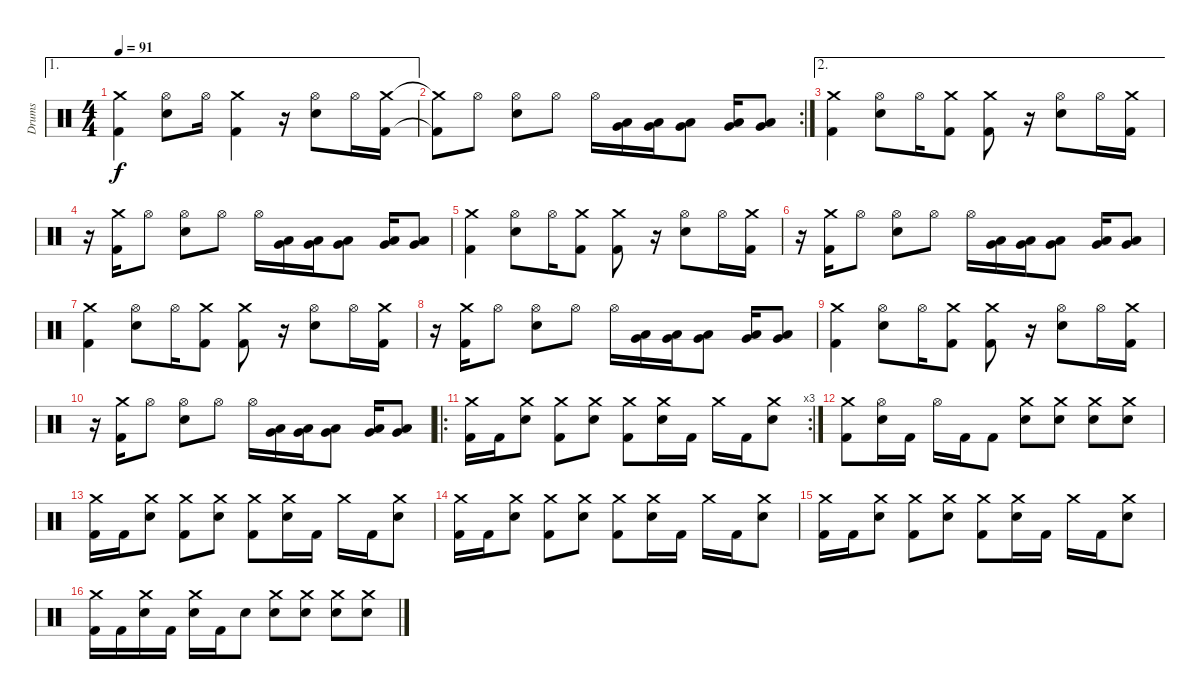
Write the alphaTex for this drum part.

\track ("Drums" "Drums") {instrument percussion}
\staff {score}
\articulation defaults
\ae 1
\ts (4 4)
\tempo 91
\clef neutral
\ks c
("Crash medium (hit)" "Kick (hit) 2").4{dy f} ("Hi-Hat (open)" "Snare (hit) 2").8 "Hi-Hat (open)".16 ("Crash medium (hit)" "Kick (hit) 2").4 r.16 ("Hi-Hat (open)" "Snare (hit) 2").8 "Hi-Hat (open)".16 ("Crash medium (hit)" "Kick (hit) 2").16 |
\rc 2
("Crash medium (hit)"{t} "Kick (hit) 2"{t}).8 "Hi-Hat (open)".8 ("Hi-Hat (open)" "Snare (hit) 2").8 "Hi-Hat (open)".8 "Hi-Hat (open)".16 ("Low Tom (hit)" "Very Low Tom (hit)").16 ("Low Tom (hit)" "Very Low Tom (hit)").16 ("Low Tom (hit)" "Very Low Tom (hit)").8 ("Low Tom (hit)" "Very Low Tom (hit)").16 ("Low Tom (hit)" "Very Low Tom (hit)").8 |
\ae 2
("Crash medium (hit)" "Kick (hit) 2").4 ("Hi-Hat (open)" "Snare (hit) 2").8 "Hi-Hat (open)".16 ("Crash medium (hit)" "Kick (hit) 2").8 ("Crash medium (hit)" "Kick (hit) 2").8 r.16 ("Hi-Hat (open)" "Snare (hit) 2").8 "Hi-Hat (open)".16 ("Crash medium (hit)" "Kick (hit) 2").16 |
r.16 ("Crash medium (hit)" "Kick (hit) 2").16 "Hi-Hat (open)".8 ("Hi-Hat (open)" "Snare (hit) 2").8 "Hi-Hat (open)".8 "Hi-Hat (open)".16 ("Low Tom (hit)" "Very Low Tom (hit)").16 ("Low Tom (hit)" "Very Low Tom (hit)").16 ("Low Tom (hit)" "Very Low Tom (hit)").8 ("Low Tom (hit)" "Very Low Tom (hit)").16 ("Low Tom (hit)" "Very Low Tom (hit)").8 |
("Crash medium (hit)" "Kick (hit) 2").4 ("Hi-Hat (open)" "Snare (hit) 2").8 "Hi-Hat (open)".16 ("Crash medium (hit)" "Kick (hit) 2").8 ("Crash medium (hit)" "Kick (hit) 2").8 r.16 ("Hi-Hat (open)" "Snare (hit) 2").8 "Hi-Hat (open)".16 ("Crash medium (hit)" "Kick (hit) 2").16 |
r.16 ("Crash medium (hit)" "Kick (hit) 2").16 "Hi-Hat (open)".8 ("Hi-Hat (open)" "Snare (hit) 2").8 "Hi-Hat (open)".8 "Hi-Hat (open)".16 ("Low Tom (hit)" "Very Low Tom (hit)").16 ("Low Tom (hit)" "Very Low Tom (hit)").16 ("Low Tom (hit)" "Very Low Tom (hit)").8 ("Low Tom (hit)" "Very Low Tom (hit)").16 ("Low Tom (hit)" "Very Low Tom (hit)").8 |
("Crash medium (hit)" "Kick (hit) 2").4 ("Hi-Hat (open)" "Snare (hit) 2").8 "Hi-Hat (open)".16 ("Crash medium (hit)" "Kick (hit) 2").8 ("Crash medium (hit)" "Kick (hit) 2").8 r.16 ("Hi-Hat (open)" "Snare (hit) 2").8 "Hi-Hat (open)".16 ("Crash medium (hit)" "Kick (hit) 2").16 |
r.16 ("Crash medium (hit)" "Kick (hit) 2").16 "Hi-Hat (open)".8 ("Hi-Hat (open)" "Snare (hit) 2").8 "Hi-Hat (open)".8 "Hi-Hat (open)".16 ("Low Tom (hit)" "Very Low Tom (hit)").16 ("Low Tom (hit)" "Very Low Tom (hit)").16 ("Low Tom (hit)" "Very Low Tom (hit)").8 ("Low Tom (hit)" "Very Low Tom (hit)").16 ("Low Tom (hit)" "Very Low Tom (hit)").8 |
("Crash medium (hit)" "Kick (hit) 2").4 ("Hi-Hat (open)" "Snare (hit) 2").8 "Hi-Hat (open)".16 ("Crash medium (hit)" "Kick (hit) 2").8 ("Crash medium (hit)" "Kick (hit) 2").8 r.16 ("Hi-Hat (open)" "Snare (hit) 2").8 "Hi-Hat (open)".16 ("Crash medium (hit)" "Kick (hit) 2").16 |
r.16 ("Crash medium (hit)" "Kick (hit) 2").16 "Hi-Hat (open)".8 ("Hi-Hat (open)" "Snare (hit) 2").8 "Hi-Hat (open)".8 "Hi-Hat (open)".16 ("Low Tom (hit)" "Very Low Tom (hit)").16 ("Low Tom (hit)" "Very Low Tom (hit)").16 ("Low Tom (hit)" "Very Low Tom (hit)").8 ("Low Tom (hit)" "Very Low Tom (hit)").16 ("Low Tom (hit)" "Very Low Tom (hit)").8 |
\ro
\rc 3
("Crash medium (hit)" "Kick (hit) 2").16 "Kick (hit) 2".16 ("Crash medium (hit)" "Snare (hit) 2").8 ("Crash medium (hit)" "Kick (hit) 2").8 ("Crash medium (hit)" "Snare (hit) 2").8 ("Crash medium (hit)" "Kick (hit) 2").8 ("Crash medium (hit)" "Snare (hit) 2").16 "Kick (hit) 2".16 "Crash medium (hit)".16 "Kick (hit) 2".16 ("Crash medium (hit)" "Snare (hit) 2").8 |
("Crash medium (hit)" "Kick (hit) 2").8 ("Hi-Hat (open)" "Snare (hit) 2").16 "Kick (hit) 2".16 "Hi-Hat (open)".16 "Kick (hit) 2".16 "Kick (hit) 2".8 ("Crash medium (hit)" "Snare (hit) 2").8 ("Crash medium (hit)" "Snare (hit) 2").8 ("Crash medium (hit)" "Snare (hit) 2").8 ("Crash medium (hit)" "Snare (hit) 2").8 |
("Crash medium (hit)" "Kick (hit) 2").16 "Kick (hit) 2".16 ("Crash medium (hit)" "Snare (hit) 2").8 ("Crash medium (hit)" "Kick (hit) 2").8 ("Crash medium (hit)" "Snare (hit) 2").8 ("Crash medium (hit)" "Kick (hit) 2").8 ("Crash medium (hit)" "Snare (hit) 2").16 "Kick (hit) 2".16 "Crash medium (hit)".16 "Kick (hit) 2".16 ("Crash medium (hit)" "Snare (hit) 2").8 |
("Crash medium (hit)" "Kick (hit) 2").16 "Kick (hit) 2".16 ("Crash medium (hit)" "Snare (hit) 2").8 ("Crash medium (hit)" "Kick (hit) 2").8 ("Crash medium (hit)" "Snare (hit) 2").8 ("Crash medium (hit)" "Kick (hit) 2").8 ("Crash medium (hit)" "Snare (hit) 2").16 "Kick (hit) 2".16 "Crash medium (hit)".16 "Kick (hit) 2".16 ("Crash medium (hit)" "Snare (hit) 2").8 |
("Crash medium (hit)" "Kick (hit) 2").16 "Kick (hit) 2".16 ("Crash medium (hit)" "Snare (hit) 2").8 ("Crash medium (hit)" "Kick (hit) 2").8 ("Crash medium (hit)" "Snare (hit) 2").8 ("Crash medium (hit)" "Kick (hit) 2").8 ("Crash medium (hit)" "Snare (hit) 2").16 "Kick (hit) 2".16 "Crash medium (hit)".16 "Kick (hit) 2".16 ("Crash medium (hit)" "Snare (hit) 2").8 |
("Crash medium (hit)" "Kick (hit) 2").16 "Kick (hit) 2".16 ("Crash medium (hit)" "Snare (hit) 2").16 "Kick (hit) 2".16 ("Crash medium (hit)" "Snare (hit) 2").16 "Kick (hit) 2".16 "Snare (hit) 2".8 ("Crash medium (hit)" "Snare (hit) 2").8 ("Crash medium (hit)" "Snare (hit) 2").8 ("Crash medium (hit)" "Snare (hit) 2").8 ("Crash medium (hit)" "Snare (hit) 2").8
